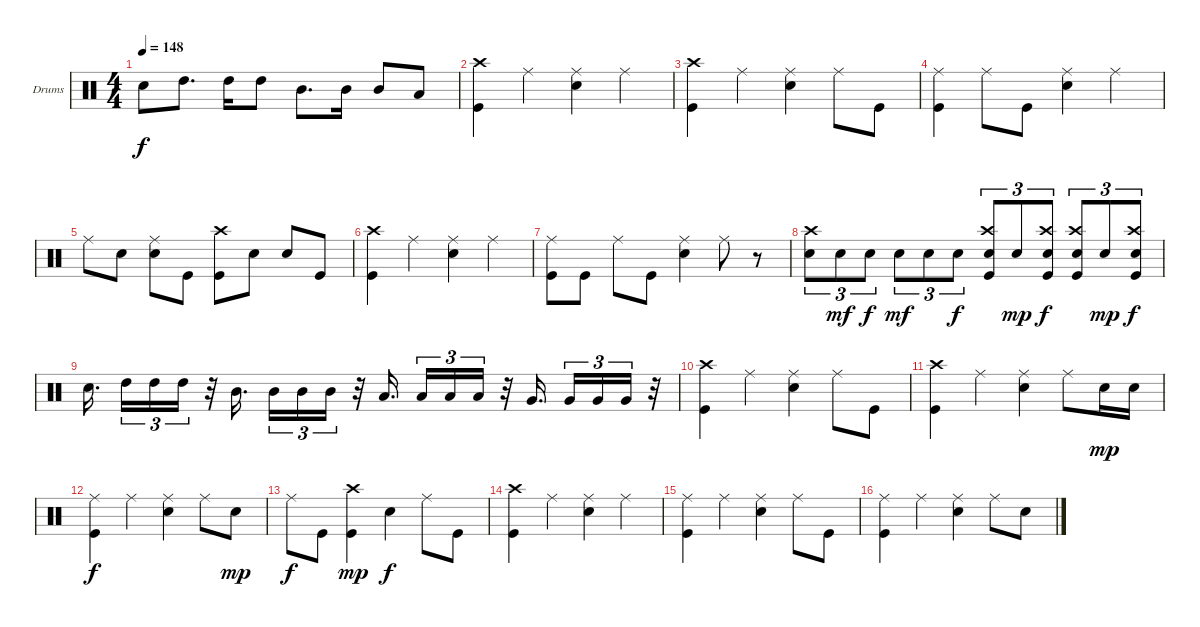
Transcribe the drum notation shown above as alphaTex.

\bracketExtendMode groupsimilarinstruments
\firstSystemTrackNameOrientation horizontal
\otherSystemsTrackNameOrientation horizontal
\track ("Drumkit" "Drums") {instrument percussion}
\staff {score}
\articulation defaults
\ts (4 4)
\tempo 148
\clef neutral
\ks c "Snare (hit) 2".8{dy f} "High Tom (hit)".8{d} "High Tom (hit)".16 "High Tom (hit)".8 "Mid Tom (hit)".8{d} "Mid Tom (hit)".16 "Mid Tom (hit)".8 "Low Tom (hit)".8
|
("Crash high (hit)" "Kick (hit)").4 "Ride (middle)".4 ("Ride (middle)" "Snare (hit) 2").4 "Ride (middle)".4 |
("Crash high (hit)" "Kick (hit)").4 "Ride (middle)".4 ("Ride (middle)" "Snare (hit) 2").4 "Ride (middle)".8 "Kick (hit)".8 |
("Ride (middle)" "Kick (hit)").4 "Ride (middle)".8 "Kick (hit)".8 ("Ride (middle)" "Snare (hit) 2").4 "Ride (middle)".4 |
"Ride (middle)".8 "Snare (hit) 2".8 ("Ride (middle)" "Snare (hit) 2").8 "Kick (hit)".8 ("Crash high (hit)" "Kick (hit)").8 "Snare (hit) 2".8 "Snare (hit) 2".8 "Kick (hit)".8 |
("Crash high (hit)" "Kick (hit)").4 "Ride (middle)".4 ("Ride (middle)" "Snare (hit) 2").4 "Ride (middle)".4 |
("Ride (middle)" "Kick (hit)").8 "Kick (hit)".8 "Ride (middle)".8 "Kick (hit)".8 ("Ride (middle)" "Snare (hit) 2").4 "Ride (middle)".8 r.8 |
("Crash high (hit)" "Snare (hit) 2").8{tu (3 2)} "Snare (hit) 2".8{tu (3 2) dy mf} "Snare (hit) 2".8{tu (3 2) dy f} "Snare (hit) 2".8{tu (3 2) dy mf} "Snare (hit) 2".8{tu (3 2)} "Snare (hit) 2".8{tu (3 2) dy f} ("Crash high (hit)" "Snare (hit) 2" "Kick (hit)").8{tu (3 2)} "Snare (hit) 2".8{tu (3 2) dy mp} ("Crash high (hit)" "Snare (hit) 2" "Kick (hit)").8{tu (3 2) dy f} ("Crash high (hit)" "Snare (hit) 2" "Kick (hit)").8{tu (3 2)} "Snare (hit) 2".8{tu (3 2) dy mp} ("Crash high (hit)" "Snare (hit) 2" "Kick (hit)").8{tu (3 2) dy f} |
"Snare (hit) 2".16{d} "High Tom (hit)".16{tu (3 2)} "High Tom (hit)".16{tu (3 2)} "High Tom (hit)".16{tu (3 2)} r.32 "Mid Tom (hit)".16{d} "Mid Tom (hit)".16{tu (3 2)} "Mid Tom (hit)".16{tu (3 2)} "Mid Tom (hit)".16{tu (3 2)} r.32 "Low Tom (hit)".16{d} "Low Tom (hit)".16{tu (3 2)} "Low Tom (hit)".16{tu (3 2)} "Low Tom (hit)".16{tu (3 2)} r.32 "Very Low Tom (hit)".16{d} "Very Low Tom (hit)".16{tu (3 2)} "Very Low Tom (hit)".16{tu (3 2)} "Very Low Tom (hit)".16{tu (3 2)} r.32 |
("Crash high (hit)" "Kick (hit)").4 "Ride (middle)".4 ("Ride (middle)" "Snare (hit) 2").4 "Ride (middle)".8 "Kick (hit)".8 |
("Crash high (hit)" "Kick (hit)").4 "Ride (middle)".4 ("Ride (middle)" "Snare (hit) 2").4 "Ride (middle)".8 "Snare (hit) 2".16{dy mp} "Snare (hit) 2".16 |
("Ride (middle)" "Kick (hit)").4{dy f} "Ride (middle)".4 ("Ride (middle)" "Snare (hit) 2").4 "Ride (middle)".8 "Snare (hit) 2".8{dy mp} |
"Ride (middle)".8{dy f} "Kick (hit)".8 ("Crash high (hit)" "Kick (hit)").4{dy mp} "Snare (hit) 2".4{dy f} "Ride (middle)".8 "Kick (hit)".8 |
("Crash high (hit)" "Kick (hit)").4 "Ride (middle)".4 ("Ride (middle)" "Snare (hit) 2").4 "Ride (middle)".4 |
("Ride (middle)" "Kick (hit)").4 "Ride (middle)".4 ("Ride (middle)" "Snare (hit) 2").4 "Ride (middle)".8 "Kick (hit)".8 |
("Ride (middle)" "Kick (hit)").4 "Ride (middle)".4 ("Ride (middle)" "Snare (hit) 2").4 "Ride (middle)".8 "Snare (hit) 2".8
